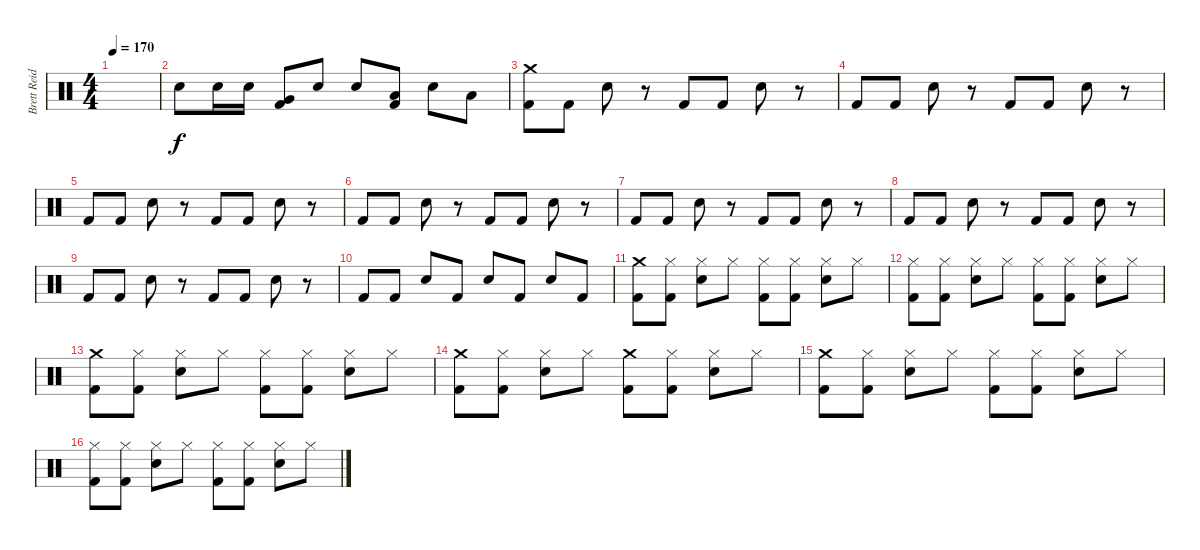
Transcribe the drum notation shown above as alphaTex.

\track ("Brett Reid" "Brett Reid") {instrument percussion}
\staff {score}
\articulation defaults
\ts (4 4)
\tempo 170
\clef neutral
\ks c
|
"Snare (hit) 2".8 "Snare (hit) 2".16 "Snare (hit) 2".16 ("Very Low Tom (hit)" "Kick (hit) 2").8 "Snare (hit) 2".8 "Snare (hit) 2".8 ("Low Floor Tom (hit)" "Kick (hit) 2").8 "Snare (hit) 2".8 "Low Tom (hit)".8 |
("Crash medium (hit)" "Kick (hit) 2").8 "Kick (hit) 2".8 "Snare (hit) 2".8 r.8 "Kick (hit) 2".8 "Kick (hit) 2".8 "Snare (hit) 2".8 r.8 |
"Kick (hit) 2".8 "Kick (hit) 2".8 "Snare (hit) 2".8 r.8 "Kick (hit) 2".8 "Kick (hit) 2".8 "Snare (hit) 2".8 r.8 |
"Kick (hit) 2".8 "Kick (hit) 2".8 "Snare (hit) 2".8 r.8 "Kick (hit) 2".8 "Kick (hit) 2".8 "Snare (hit) 2".8 r.8 |
"Kick (hit) 2".8 "Kick (hit) 2".8 "Snare (hit) 2".8 r.8 "Kick (hit) 2".8 "Kick (hit) 2".8 "Snare (hit) 2".8 r.8 |
"Kick (hit) 2".8 "Kick (hit) 2".8 "Snare (hit) 2".8 r.8 "Kick (hit) 2".8 "Kick (hit) 2".8 "Snare (hit) 2".8 r.8 |
"Kick (hit) 2".8 "Kick (hit) 2".8 "Snare (hit) 2".8 r.8 "Kick (hit) 2".8 "Kick (hit) 2".8 "Snare (hit) 2".8 r.8 |
"Kick (hit) 2".8 "Kick (hit) 2".8 "Snare (hit) 2".8 r.8 "Kick (hit) 2".8 "Kick (hit) 2".8 "Snare (hit) 2".8 r.8 |
"Kick (hit) 2".8 "Kick (hit) 2".8 "Snare (hit) 2".8 "Kick (hit) 2".8 "Snare (hit) 2".8 "Kick (hit) 2".8 "Snare (hit) 2".8 "Kick (hit) 2".8 |
("Crash medium (hit)" "Kick (hit) 2").8 ("Hi-Hat (closed)" "Kick (hit) 2").8 ("Hi-Hat (closed)" "Snare (hit) 2").8 "Hi-Hat (closed)".8 ("Hi-Hat (closed)" "Kick (hit) 2").8 ("Hi-Hat (closed)" "Kick (hit) 2").8 ("Hi-Hat (closed)" "Snare (hit) 2").8 "Hi-Hat (closed)".8 |
("Hi-Hat (closed)" "Kick (hit) 2").8 ("Hi-Hat (closed)" "Kick (hit) 2").8 ("Hi-Hat (closed)" "Snare (hit) 2").8 "Hi-Hat (closed)".8 ("Hi-Hat (closed)" "Kick (hit) 2").8 ("Hi-Hat (closed)" "Kick (hit) 2").8 ("Hi-Hat (closed)" "Snare (hit) 2").8 "Hi-Hat (closed)".8 |
("Crash medium (hit)" "Kick (hit) 2").8 ("Hi-Hat (closed)" "Kick (hit) 2").8 ("Hi-Hat (closed)" "Snare (hit) 2").8 "Hi-Hat (closed)".8 ("Hi-Hat (closed)" "Kick (hit) 2").8 ("Hi-Hat (closed)" "Kick (hit) 2").8 ("Hi-Hat (closed)" "Snare (hit) 2").8 "Hi-Hat (closed)".8 |
("Crash medium (hit)" "Kick (hit) 2").8 ("Hi-Hat (closed)" "Kick (hit) 2").8 ("Hi-Hat (closed)" "Snare (hit) 2").8 "Hi-Hat (closed)".8 ("Crash medium (hit)" "Kick (hit) 2").8 ("Hi-Hat (closed)" "Kick (hit) 2").8 ("Hi-Hat (closed)" "Snare (hit) 2").8 "Hi-Hat (closed)".8 |
("Crash medium (hit)" "Kick (hit) 2").8 ("Hi-Hat (closed)" "Kick (hit) 2").8 ("Hi-Hat (closed)" "Snare (hit) 2").8 "Hi-Hat (closed)".8 ("Hi-Hat (closed)" "Kick (hit) 2").8 ("Hi-Hat (closed)" "Kick (hit) 2").8 ("Hi-Hat (closed)" "Snare (hit) 2").8 "Hi-Hat (closed)".8 |
("Hi-Hat (closed)" "Kick (hit) 2").8 ("Hi-Hat (closed)" "Kick (hit) 2").8 ("Hi-Hat (closed)" "Snare (hit) 2").8 "Hi-Hat (closed)".8 ("Hi-Hat (closed)" "Kick (hit) 2").8 ("Hi-Hat (closed)" "Kick (hit) 2").8 ("Hi-Hat (closed)" "Snare (hit) 2").8 "Hi-Hat (closed)".8
